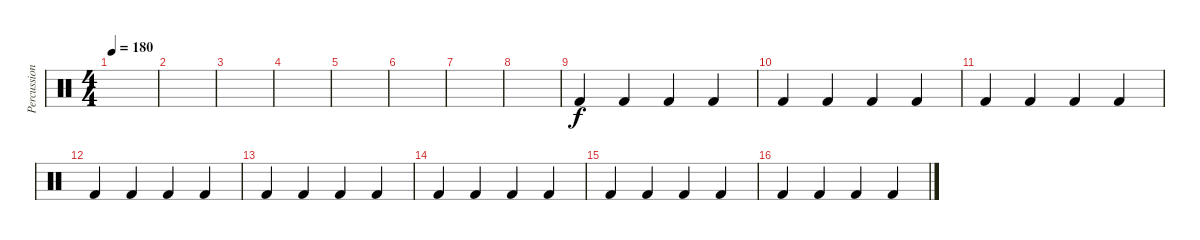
\track ("Percussion" "Percussion") {instrument percussion}
\staff {score}
\articulation defaults
\ts (4 4)
\tempo 180
\clef neutral
\ks c
|
|
|
|
|
|
|
|
"Kick (hit) 2".4 "Kick (hit) 2".4 "Kick (hit) 2".4 "Kick (hit) 2".4 |
"Kick (hit) 2".4 "Kick (hit) 2".4 "Kick (hit) 2".4 "Kick (hit) 2".4 |
"Kick (hit) 2".4 "Kick (hit) 2".4 "Kick (hit) 2".4 "Kick (hit) 2".4 |
"Kick (hit) 2".4 "Kick (hit) 2".4 "Kick (hit) 2".4 "Kick (hit) 2".4 |
"Kick (hit) 2".4 "Kick (hit) 2".4 "Kick (hit) 2".4 "Kick (hit) 2".4 |
"Kick (hit) 2".4 "Kick (hit) 2".4 "Kick (hit) 2".4 "Kick (hit) 2".4 |
"Kick (hit) 2".4 "Kick (hit) 2".4 "Kick (hit) 2".4 "Kick (hit) 2".4 |
"Kick (hit) 2".4 "Kick (hit) 2".4 "Kick (hit) 2".4 "Kick (hit) 2".4
